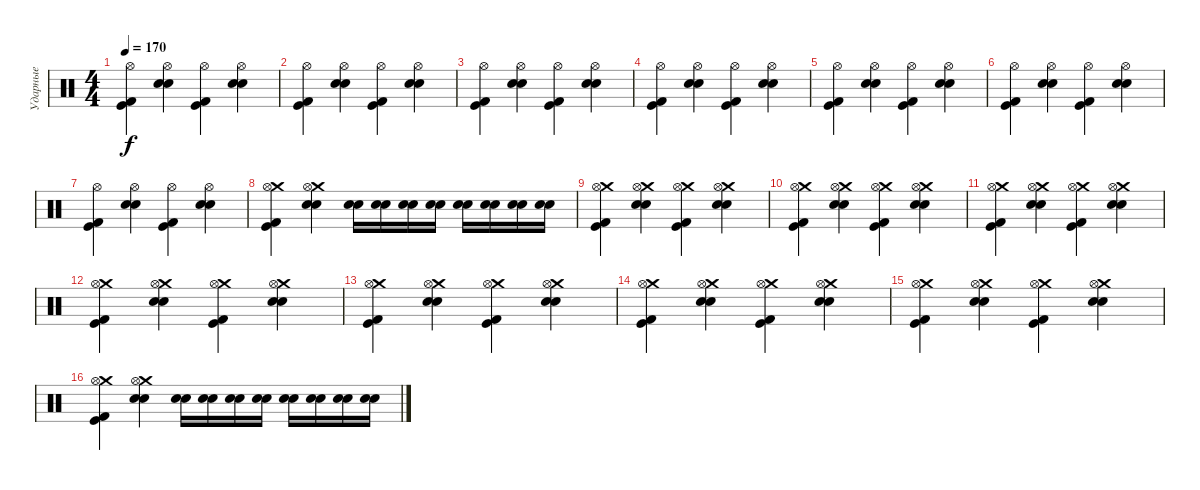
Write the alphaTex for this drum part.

\track ("Ударные" "Ударные") {instrument percussion}
\staff {score}
\articulation defaults
\ts (4 4)
\tempo 170
\clef neutral
\ks c
("Hi-Hat (open)" "Kick (hit)" "Kick (hit) 2").4{dy f} ("Hi-Hat (open)" "Electric Snare (hit)" "Snare (hit) 2").4 ("Hi-Hat (open)" "Kick (hit)" "Kick (hit) 2").4 ("Hi-Hat (open)" "Electric Snare (hit)" "Snare (hit) 2").4 |
("Hi-Hat (open)" "Kick (hit)" "Kick (hit) 2").4 ("Hi-Hat (open)" "Electric Snare (hit)" "Snare (hit) 2").4 ("Hi-Hat (open)" "Kick (hit)" "Kick (hit) 2").4 ("Hi-Hat (open)" "Electric Snare (hit)" "Snare (hit) 2").4 |
("Hi-Hat (open)" "Kick (hit)" "Kick (hit) 2").4 ("Hi-Hat (open)" "Electric Snare (hit)" "Snare (hit) 2").4 ("Hi-Hat (open)" "Kick (hit)" "Kick (hit) 2").4 ("Hi-Hat (open)" "Electric Snare (hit)" "Snare (hit) 2").4 |
("Hi-Hat (open)" "Kick (hit)" "Kick (hit) 2").4 ("Hi-Hat (open)" "Electric Snare (hit)" "Snare (hit) 2").4 ("Hi-Hat (open)" "Kick (hit)" "Kick (hit) 2").4 ("Hi-Hat (open)" "Electric Snare (hit)" "Snare (hit) 2").4 |
("Hi-Hat (open)" "Kick (hit)" "Kick (hit) 2").4 ("Hi-Hat (open)" "Electric Snare (hit)" "Snare (hit) 2").4 ("Hi-Hat (open)" "Kick (hit)" "Kick (hit) 2").4 ("Hi-Hat (open)" "Electric Snare (hit)" "Snare (hit) 2").4 |
("Hi-Hat (open)" "Kick (hit)" "Kick (hit) 2").4 ("Hi-Hat (open)" "Electric Snare (hit)" "Snare (hit) 2").4 ("Hi-Hat (open)" "Kick (hit)" "Kick (hit) 2").4 ("Hi-Hat (open)" "Electric Snare (hit)" "Snare (hit) 2").4 |
("Hi-Hat (open)" "Kick (hit)" "Kick (hit) 2").4 ("Hi-Hat (open)" "Electric Snare (hit)" "Snare (hit) 2").4 ("Hi-Hat (open)" "Kick (hit)" "Kick (hit) 2").4 ("Hi-Hat (open)" "Electric Snare (hit)" "Snare (hit) 2").4 |
("Crash medium (hit)" "Hi-Hat (open)" "Kick (hit)" "Kick (hit) 2").4 ("Crash medium (hit)" "Hi-Hat (open)" "Electric Snare (hit)" "Snare (hit) 2").4 ("Snare (hit) 2" "Electric Snare (hit)").16 ("Snare (hit) 2" "Electric Snare (hit)").16 ("Snare (hit) 2" "Electric Snare (hit)").16 ("Snare (hit) 2" "Electric Snare (hit)").16 ("Snare (hit) 2" "Electric Snare (hit)").16 ("Snare (hit) 2" "Electric Snare (hit)").16 ("Snare (hit) 2" "Electric Snare (hit)").16 ("Snare (hit) 2" "Electric Snare (hit)").16 |
("Crash medium (hit)" "Hi-Hat (open)" "Kick (hit)" "Kick (hit) 2").4 ("Crash medium (hit)" "Hi-Hat (open)" "Electric Snare (hit)" "Snare (hit) 2").4 ("Crash medium (hit)" "Hi-Hat (open)" "Kick (hit)" "Kick (hit) 2").4 ("Crash medium (hit)" "Hi-Hat (open)" "Electric Snare (hit)" "Snare (hit) 2").4 |
("Crash medium (hit)" "Hi-Hat (open)" "Kick (hit)" "Kick (hit) 2").4 ("Crash medium (hit)" "Hi-Hat (open)" "Electric Snare (hit)" "Snare (hit) 2").4 ("Crash medium (hit)" "Hi-Hat (open)" "Kick (hit)" "Kick (hit) 2").4 ("Crash medium (hit)" "Hi-Hat (open)" "Electric Snare (hit)" "Snare (hit) 2").4 |
("Crash medium (hit)" "Hi-Hat (open)" "Kick (hit)" "Kick (hit) 2").4 ("Crash medium (hit)" "Hi-Hat (open)" "Electric Snare (hit)" "Snare (hit) 2").4 ("Crash medium (hit)" "Hi-Hat (open)" "Kick (hit)" "Kick (hit) 2").4 ("Crash medium (hit)" "Hi-Hat (open)" "Electric Snare (hit)" "Snare (hit) 2").4 |
("Crash medium (hit)" "Hi-Hat (open)" "Kick (hit)" "Kick (hit) 2").4 ("Crash medium (hit)" "Hi-Hat (open)" "Electric Snare (hit)" "Snare (hit) 2").4 ("Crash medium (hit)" "Hi-Hat (open)" "Kick (hit)" "Kick (hit) 2").4 ("Crash medium (hit)" "Hi-Hat (open)" "Electric Snare (hit)" "Snare (hit) 2").4 |
("Crash medium (hit)" "Hi-Hat (open)" "Kick (hit)" "Kick (hit) 2").4 ("Crash medium (hit)" "Hi-Hat (open)" "Electric Snare (hit)" "Snare (hit) 2").4 ("Crash medium (hit)" "Hi-Hat (open)" "Kick (hit)" "Kick (hit) 2").4 ("Crash medium (hit)" "Hi-Hat (open)" "Electric Snare (hit)" "Snare (hit) 2").4 |
("Crash medium (hit)" "Hi-Hat (open)" "Kick (hit)" "Kick (hit) 2").4 ("Crash medium (hit)" "Hi-Hat (open)" "Electric Snare (hit)" "Snare (hit) 2").4 ("Crash medium (hit)" "Hi-Hat (open)" "Kick (hit)" "Kick (hit) 2").4 ("Crash medium (hit)" "Hi-Hat (open)" "Electric Snare (hit)" "Snare (hit) 2").4 |
("Crash medium (hit)" "Hi-Hat (open)" "Kick (hit)" "Kick (hit) 2").4 ("Crash medium (hit)" "Hi-Hat (open)" "Electric Snare (hit)" "Snare (hit) 2").4 ("Crash medium (hit)" "Hi-Hat (open)" "Kick (hit)" "Kick (hit) 2").4 ("Crash medium (hit)" "Hi-Hat (open)" "Electric Snare (hit)" "Snare (hit) 2").4 |
("Crash medium (hit)" "Hi-Hat (open)" "Kick (hit)" "Kick (hit) 2").4 ("Crash medium (hit)" "Hi-Hat (open)" "Electric Snare (hit)" "Snare (hit) 2").4 ("Snare (hit) 2" "Electric Snare (hit)").16 ("Snare (hit) 2" "Electric Snare (hit)").16 ("Snare (hit) 2" "Electric Snare (hit)").16 ("Snare (hit) 2" "Electric Snare (hit)").16 ("Snare (hit) 2" "Electric Snare (hit)").16 ("Snare (hit) 2" "Electric Snare (hit)").16 ("Snare (hit) 2" "Electric Snare (hit)").16 ("Snare (hit) 2" "Electric Snare (hit)").16
